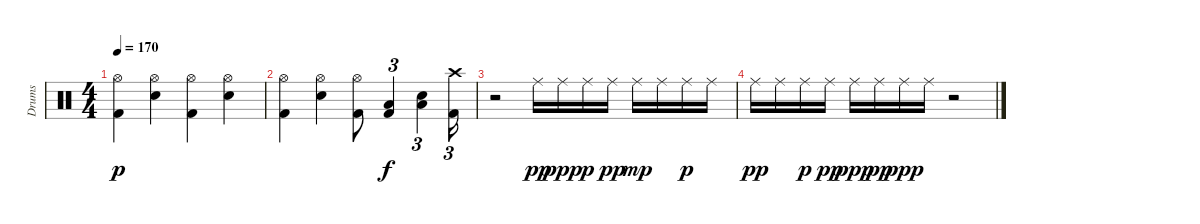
\track ("Drums" "Drums") {instrument percussion}
\staff {score}
\articulation defaults
\ts (4 4)
\tempo 170
\clef neutral
\ks c
("Hi-Hat (open)" "Kick (hit) 2").4{dy p} ("Hi-Hat (open)" "Electric Snare (hit)").4 ("Hi-Hat (open)" "Kick (hit) 2").4 ("Hi-Hat (open)" "Electric Snare (hit)").4 |
("Hi-Hat (open)" "Kick (hit) 2").4 ("Hi-Hat (open)" "Electric Snare (hit)").4 ("Hi-Hat (open)" "Kick (hit) 2").8 ("Low Tom (hit)" "Kick (hit) 2").4{tu (3 2) dy f} ("Electric Snare (hit)" "Low Tom (hit)").4{tu (3 2)} ("Crash high (hit)" "Kick (hit) 2").16{tu (3 2)} |
r.2 "Ride (middle)".16{dy pp} "Ride (middle)".16{dy ppp} "Ride (middle)".16{dy p} "Ride (middle)".16{dy pp} "Ride (middle)".16{dy mp} "Ride (middle)".16 "Ride (middle)".16{dy p} "Ride (middle)".16 |
"Ride (middle)".16{dy pp} "Ride (middle)".16 "Ride (middle)".16{dy p} "Ride (middle)".16{dy pp} "Ride (middle)".16{dy ppp} "Ride (middle)".16{dy pp} "Ride (middle)".16{dy ppp} "Ride (middle)".16 r.2
